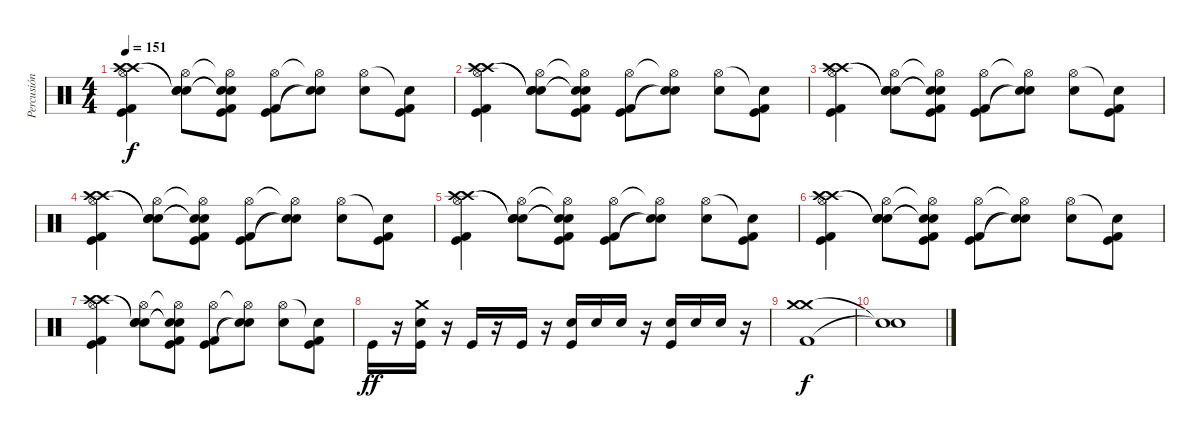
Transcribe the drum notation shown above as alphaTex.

\track ("Percusión" "Percusión") {instrument percussion}
\staff {score}
\articulation defaults
\ts (4 4)
\tempo 151
\clef neutral
\ks c
("Hi-Hat (open)" "Crash high (hit)" "Crash high (hit)" "Kick (hit)" "Kick (hit) 2").4{dy f} ("Hi-Hat (open)" "Snare (hit)"{t} "Snare (hit)"{t} "Electric Snare (hit)").8 ("Hi-Hat (open)"{t} "Snare (hit)"{t} "Snare (hit)"{t} "Kick (hit)" "Kick (hit) 2").8 ("Hi-Hat (open)" "Kick (hit)" "Kick (hit) 2").8 ("Hi-Hat (open)"{t} "Electric Snare (hit)"{t} "Snare (hit)"{t}).8 ("Hi-Hat (open)" "Electric Snare (hit)").8 ("Snare (hit)"{t} "Kick (hit)" "Kick (hit) 2").8 |
("Hi-Hat (open)" "Crash high (hit)" "Crash high (hit)" "Kick (hit)" "Kick (hit) 2").4 ("Hi-Hat (open)" "Snare (hit)"{t} "Snare (hit)"{t} "Electric Snare (hit)").8 ("Hi-Hat (open)"{t} "Snare (hit)"{t} "Snare (hit)"{t} "Kick (hit)" "Kick (hit) 2").8 ("Hi-Hat (open)" "Kick (hit)" "Kick (hit) 2").8 ("Hi-Hat (open)"{t} "Electric Snare (hit)"{t} "Snare (hit)"{t}).8 ("Hi-Hat (open)" "Electric Snare (hit)").8 ("Snare (hit)"{t} "Kick (hit)" "Kick (hit) 2").8 |
("Hi-Hat (open)" "Crash high (hit)" "Crash high (hit)" "Kick (hit)" "Kick (hit) 2").4 ("Hi-Hat (open)" "Snare (hit)"{t} "Snare (hit)"{t} "Electric Snare (hit)").8 ("Hi-Hat (open)"{t} "Snare (hit)"{t} "Snare (hit)"{t} "Kick (hit)" "Kick (hit) 2").8 ("Hi-Hat (open)" "Kick (hit)" "Kick (hit) 2").8 ("Hi-Hat (open)"{t} "Electric Snare (hit)"{t} "Snare (hit)"{t}).8 ("Hi-Hat (open)" "Electric Snare (hit)").8 ("Snare (hit)"{t} "Kick (hit)" "Kick (hit) 2").8 |
("Hi-Hat (open)" "Crash high (hit)" "Crash high (hit)" "Kick (hit)" "Kick (hit) 2").4 ("Hi-Hat (open)" "Snare (hit)"{t} "Snare (hit)"{t} "Electric Snare (hit)").8 ("Hi-Hat (open)"{t} "Snare (hit)"{t} "Snare (hit)"{t} "Kick (hit)" "Kick (hit) 2").8 ("Hi-Hat (open)" "Kick (hit)" "Kick (hit) 2").8 ("Hi-Hat (open)"{t} "Electric Snare (hit)"{t} "Snare (hit)"{t}).8 ("Hi-Hat (open)" "Electric Snare (hit)").8 ("Snare (hit)"{t} "Kick (hit)" "Kick (hit) 2").8 |
("Hi-Hat (open)" "Crash high (hit)" "Crash high (hit)" "Kick (hit)" "Kick (hit) 2").4 ("Hi-Hat (open)" "Snare (hit)"{t} "Snare (hit)"{t} "Electric Snare (hit)").8 ("Hi-Hat (open)"{t} "Snare (hit)"{t} "Snare (hit)"{t} "Kick (hit)" "Kick (hit) 2").8 ("Hi-Hat (open)" "Kick (hit)" "Kick (hit) 2").8 ("Hi-Hat (open)"{t} "Electric Snare (hit)"{t} "Snare (hit)"{t}).8 ("Hi-Hat (open)" "Electric Snare (hit)").8 ("Snare (hit)"{t} "Kick (hit)" "Kick (hit) 2").8 |
("Hi-Hat (open)" "Crash high (hit)" "Crash high (hit)" "Kick (hit)" "Kick (hit) 2").4 ("Hi-Hat (open)" "Snare (hit)"{t} "Snare (hit)"{t} "Electric Snare (hit)").8 ("Hi-Hat (open)"{t} "Snare (hit)"{t} "Snare (hit)"{t} "Kick (hit)" "Kick (hit) 2").8 ("Hi-Hat (open)" "Kick (hit)" "Kick (hit) 2").8 ("Hi-Hat (open)"{t} "Electric Snare (hit)"{t} "Snare (hit)"{t}).8 ("Hi-Hat (open)" "Electric Snare (hit)").8 ("Snare (hit)"{t} "Kick (hit)" "Kick (hit) 2").8 |
("Hi-Hat (open)" "Crash high (hit)" "Crash high (hit)" "Kick (hit)" "Kick (hit) 2").4 ("Hi-Hat (open)" "Snare (hit)"{t} "Snare (hit)"{t} "Electric Snare (hit)").8 ("Hi-Hat (open)"{t} "Snare (hit)"{t} "Snare (hit)"{t} "Kick (hit)" "Kick (hit) 2").8 ("Hi-Hat (open)" "Kick (hit)" "Kick (hit) 2").8 ("Hi-Hat (open)"{t} "Electric Snare (hit)"{t} "Snare (hit)"{t}).8 ("Hi-Hat (open)" "Electric Snare (hit)").8 ("Snare (hit)"{t} "Kick (hit)" "Kick (hit) 2").8 |
"Kick (hit)".16{dy ff} r.16 ("Kick (hit)" "Snare (hit) 2" "Crash medium (hit)").16 r.16 "Kick (hit)".16 r.16 "Kick (hit)".16 r.16 ("Kick (hit)" "Snare (hit) 2").16 "Snare (hit) 2".16 "Snare (hit) 2".16 r.16 ("Kick (hit)" "Snare (hit) 2").16 "Snare (hit) 2".16 "Snare (hit) 2".16 r.16 |
("Kick (hit) 2" "Crash medium (hit)" "Crash medium (hit)").1{dy f} |
("Snare (hit)"{t} "Snare (hit)"{t}).1
